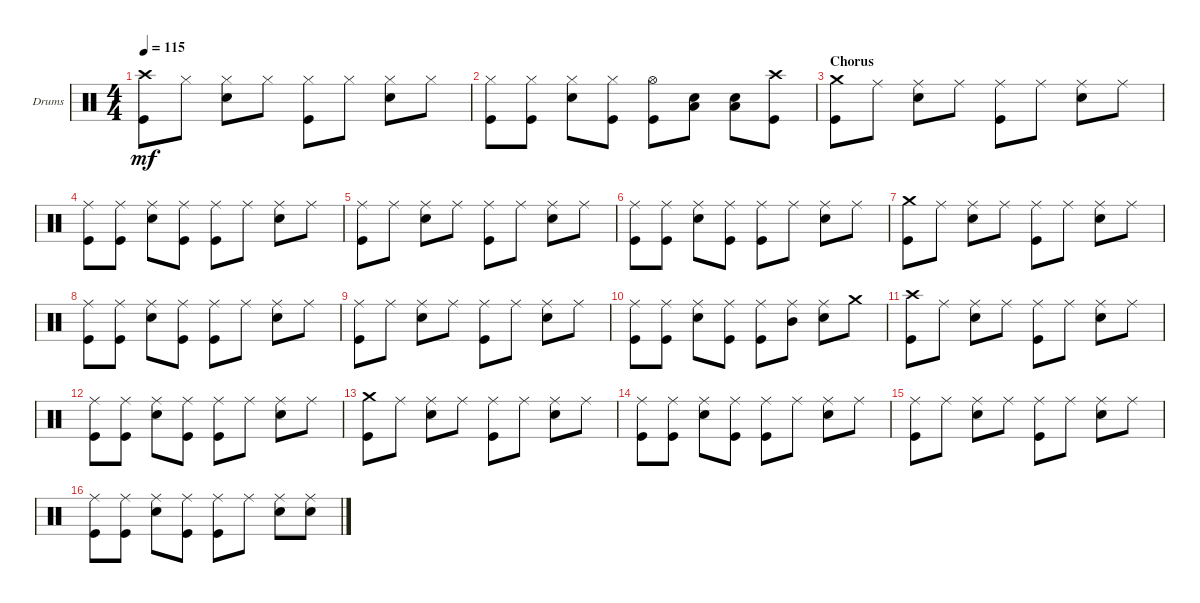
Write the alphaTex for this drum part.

\defaultSystemsLayout 4
\bracketExtendMode groupsimilarinstruments
\firstSystemTrackNameOrientation horizontal
\otherSystemsTrackNameOrientation horizontal
\track ("Drumkit (Curt Cress)" "Drums") {instrument percussion}
\staff {score}
\articulation defaults
\ts (4 4)
\tempo 115
\clef neutral
\scale
1.02648
\ks c
("Kick (hit)" "Crash high (hit)").8{dy mf} "Hi-Hat (closed)".8 ("Hi-Hat (closed)" "Snare (hit) 2").8 "Hi-Hat (closed)".8 ("Hi-Hat (closed)" "Kick (hit)").8 "Hi-Hat (closed)".8 ("Hi-Hat (closed)" "Snare (hit) 2").8 "Hi-Hat (closed)".8 |
\scale
0.973518 ("Kick (hit)" "Hi-Hat (closed)").8 ("Hi-Hat (closed)" "Kick (hit)").8 ("Hi-Hat (closed)" "Snare (hit) 2").8 ("Hi-Hat (closed)" "Kick (hit)").8 ("Hi-Hat (open)" "Kick (hit)").8 ("Snare (hit) 2" "Low Tom (hit)").8 ("Snare (hit) 2" "Low Tom (hit)").8 ("Crash high (hit)" "Kick (hit)").8 |
\section ("" "Chorus")
\scale
1.02648 ("Kick (hit)" "Crash medium (hit)").8 "Ride (middle)".8 ("Snare (hit) 2" "Ride (middle)").8 "Ride (middle)".8 ("Kick (hit)" "Ride (middle)").8 "Ride (middle)".8 ("Snare (hit) 2" "Ride (middle)").8 "Ride (middle)".8 |
\scale
0.973518 ("Kick (hit)" "Ride (middle)").8 ("Kick (hit)" "Ride (middle)").8 ("Snare (hit) 2" "Ride (middle)").8 ("Kick (hit)" "Ride (middle)").8 ("Kick (hit)" "Ride (middle)").8 "Ride (middle)".8 ("Snare (hit) 2" "Ride (middle)").8 "Ride (middle)".8 |
\scale
1.02648 ("Kick (hit)" "Ride (middle)").8 "Ride (middle)".8 ("Snare (hit) 2" "Ride (middle)").8 "Ride (middle)".8 ("Kick (hit)" "Ride (middle)").8 "Ride (middle)".8 ("Snare (hit) 2" "Ride (middle)").8 "Ride (middle)".8 |
\scale
0.973518 ("Kick (hit)" "Ride (middle)").8 ("Kick (hit)" "Ride (middle)").8 ("Snare (hit) 2" "Ride (middle)").8 ("Kick (hit)" "Ride (middle)").8 ("Kick (hit)" "Ride (middle)").8 "Ride (middle)".8 ("Snare (hit) 2" "Ride (middle)").8 "Ride (middle)".8 |
\scale
1.02648 ("Kick (hit)" "Crash medium (hit)").8 "Ride (middle)".8 ("Snare (hit) 2" "Ride (middle)").8 "Ride (middle)".8 ("Kick (hit)" "Ride (middle)").8 "Ride (middle)".8 ("Snare (hit) 2" "Ride (middle)").8 "Ride (middle)".8 |
\scale
0.973518 ("Kick (hit)" "Ride (middle)").8 ("Kick (hit)" "Ride (middle)").8 ("Snare (hit) 2" "Ride (middle)").8 ("Kick (hit)" "Ride (middle)").8 ("Kick (hit)" "Ride (middle)").8 "Ride (middle)".8 ("Snare (hit) 2" "Ride (middle)").8 "Ride (middle)".8 |
\scale
1.02648 ("Kick (hit)" "Ride (middle)").8 "Ride (middle)".8 ("Snare (hit) 2" "Ride (middle)").8 "Ride (middle)".8 ("Kick (hit)" "Ride (middle)").8 "Ride (middle)".8 ("Snare (hit) 2" "Ride (middle)").8 "Ride (middle)".8 |
\scale
0.973518 ("Kick (hit)" "Ride (middle)").8 ("Kick (hit)" "Ride (middle)").8 ("Snare (hit) 2" "Ride (middle)").8 ("Kick (hit)" "Ride (middle)").8 ("Kick (hit)" "Ride (middle)").8 ("Ride (middle)" "Mid Tom (hit)").8 ("Snare (hit) 2" "Ride (middle)").8 "Crash medium (hit)".8 |
\scale
1.02648 ("Crash high (hit)" "Kick (hit)").8 "Ride (middle)".8 ("Snare (hit) 2" "Ride (middle)").8 "Ride (middle)".8 ("Kick (hit)" "Ride (middle)").8 "Ride (middle)".8 ("Snare (hit) 2" "Ride (middle)").8 "Ride (middle)".8 |
\scale
0.973518 ("Kick (hit)" "Ride (middle)").8 ("Kick (hit)" "Ride (middle)").8 ("Snare (hit) 2" "Ride (middle)").8 ("Kick (hit)" "Ride (middle)").8 ("Kick (hit)" "Ride (middle)").8 "Ride (middle)".8 ("Snare (hit) 2" "Ride (middle)").8 "Ride (middle)".8 |
\scale
1.02648 ("Kick (hit)" "Crash medium (hit)").8 "Ride (middle)".8 ("Snare (hit) 2" "Ride (middle)").8 "Ride (middle)".8 ("Kick (hit)" "Ride (middle)").8 "Ride (middle)".8 ("Snare (hit) 2" "Ride (middle)").8 "Ride (middle)".8 |
\scale
0.973518 ("Kick (hit)" "Ride (middle)").8 ("Kick (hit)" "Ride (middle)").8 ("Snare (hit) 2" "Ride (middle)").8 ("Kick (hit)" "Ride (middle)").8 ("Kick (hit)" "Ride (middle)").8 "Ride (middle)".8 ("Snare (hit) 2" "Ride (middle)").8 "Ride (middle)".8 |
\scale
1.02648 ("Kick (hit)" "Ride (middle)").8 "Ride (middle)".8 ("Snare (hit) 2" "Ride (middle)").8 "Ride (middle)".8 ("Kick (hit)" "Ride (middle)").8 "Ride (middle)".8 ("Snare (hit) 2" "Ride (middle)").8 "Ride (middle)".8 |
\scale
0.973518 ("Kick (hit)" "Ride (middle)").8 ("Kick (hit)" "Ride (middle)").8 ("Snare (hit) 2" "Ride (middle)").8 ("Kick (hit)" "Ride (middle)").8 ("Kick (hit)" "Ride (middle)").8 "Ride (middle)".8 ("Snare (hit) 2" "Ride (middle)").8 ("Ride (middle)" "Snare (hit) 2").8
